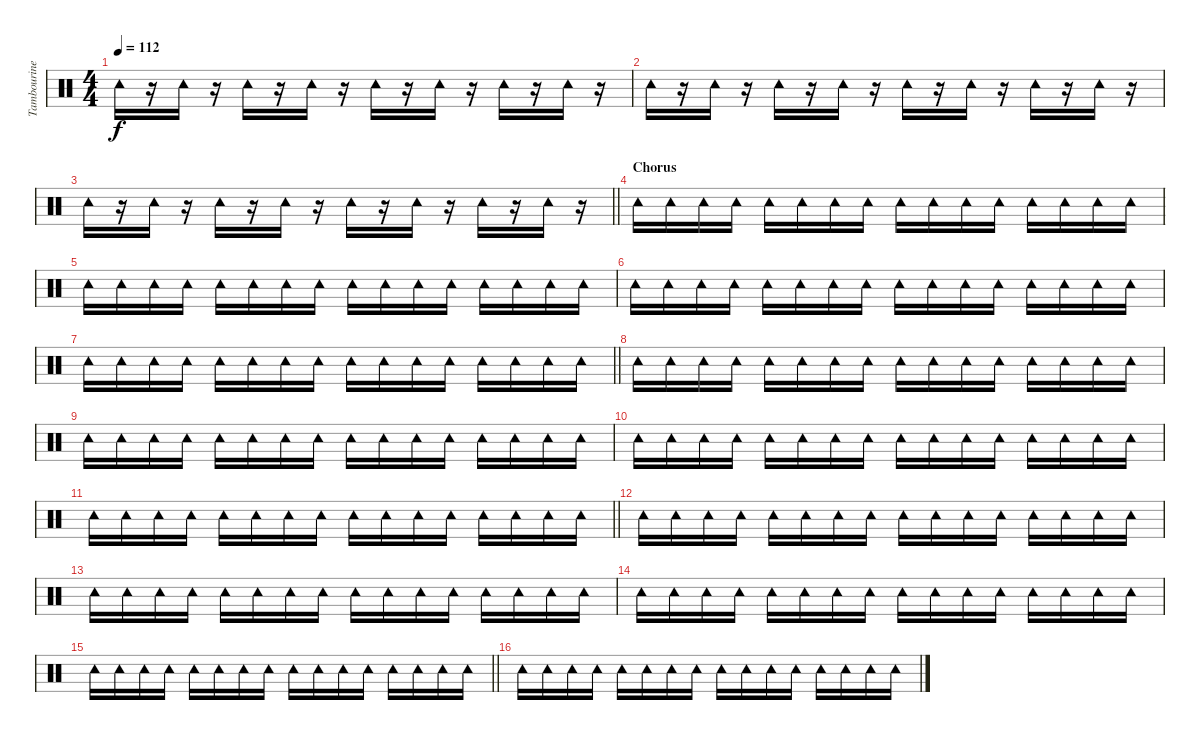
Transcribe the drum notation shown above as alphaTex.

\track ("Tambourine" "Tambourine") {instrument percussion}
\staff {score}
\articulation defaults
\ts (4 4)
\tempo 112
\clef neutral
\ks c "Tambourine (hit)".16{dy f}
r.16 "Tambourine (hit)".16 r.16 "Tambourine (hit)".16 r.16 "Tambourine (hit)".16 r.16 "Tambourine (hit)".16 r.16 "Tambourine (hit)".16 r.16 "Tambourine (hit)".16 r.16 "Tambourine (hit)".16 r.16 |
"Tambourine (hit)".16 r.16 "Tambourine (hit)".16 r.16 "Tambourine (hit)".16 r.16 "Tambourine (hit)".16 r.16 "Tambourine (hit)".16 r.16 "Tambourine (hit)".16 r.16 "Tambourine (hit)".16 r.16 "Tambourine (hit)".16 r.16 |
\barLineRight lightlight "Tambourine (hit)".16
r.16 "Tambourine (hit)".16 r.16 "Tambourine (hit)".16 r.16 "Tambourine (hit)".16 r.16 "Tambourine (hit)".16 r.16 "Tambourine (hit)".16 r.16 "Tambourine (hit)".16 r.16 "Tambourine (hit)".16 r.16 |
\section ("" "Chorus")
"Tambourine (hit)".16 "Tambourine (hit)".16 "Tambourine (hit)".16 "Tambourine (hit)".16 "Tambourine (hit)".16 "Tambourine (hit)".16 "Tambourine (hit)".16 "Tambourine (hit)".16 "Tambourine (hit)".16 "Tambourine (hit)".16 "Tambourine (hit)".16 "Tambourine (hit)".16 "Tambourine (hit)".16 "Tambourine (hit)".16 "Tambourine (hit)".16 "Tambourine (hit)".16 |
"Tambourine (hit)".16 "Tambourine (hit)".16 "Tambourine (hit)".16 "Tambourine (hit)".16 "Tambourine (hit)".16 "Tambourine (hit)".16 "Tambourine (hit)".16 "Tambourine (hit)".16 "Tambourine (hit)".16 "Tambourine (hit)".16 "Tambourine (hit)".16 "Tambourine (hit)".16 "Tambourine (hit)".16 "Tambourine (hit)".16 "Tambourine (hit)".16 "Tambourine (hit)".16 |
"Tambourine (hit)".16 "Tambourine (hit)".16 "Tambourine (hit)".16 "Tambourine (hit)".16 "Tambourine (hit)".16 "Tambourine (hit)".16 "Tambourine (hit)".16 "Tambourine (hit)".16 "Tambourine (hit)".16 "Tambourine (hit)".16 "Tambourine (hit)".16 "Tambourine (hit)".16 "Tambourine (hit)".16 "Tambourine (hit)".16 "Tambourine (hit)".16 "Tambourine (hit)".16 |
\barLineRight lightlight "Tambourine (hit)".16 "Tambourine (hit)".16 "Tambourine (hit)".16 "Tambourine (hit)".16 "Tambourine (hit)".16 "Tambourine (hit)".16 "Tambourine (hit)".16 "Tambourine (hit)".16 "Tambourine (hit)".16 "Tambourine (hit)".16 "Tambourine (hit)".16 "Tambourine (hit)".16 "Tambourine (hit)".16 "Tambourine (hit)".16 "Tambourine (hit)".16 "Tambourine (hit)".16
|
"Tambourine (hit)".16 "Tambourine (hit)".16 "Tambourine (hit)".16 "Tambourine (hit)".16 "Tambourine (hit)".16 "Tambourine (hit)".16 "Tambourine (hit)".16 "Tambourine (hit)".16 "Tambourine (hit)".16 "Tambourine (hit)".16 "Tambourine (hit)".16 "Tambourine (hit)".16 "Tambourine (hit)".16 "Tambourine (hit)".16 "Tambourine (hit)".16 "Tambourine (hit)".16 |
"Tambourine (hit)".16 "Tambourine (hit)".16 "Tambourine (hit)".16 "Tambourine (hit)".16 "Tambourine (hit)".16 "Tambourine (hit)".16 "Tambourine (hit)".16 "Tambourine (hit)".16 "Tambourine (hit)".16 "Tambourine (hit)".16 "Tambourine (hit)".16 "Tambourine (hit)".16 "Tambourine (hit)".16 "Tambourine (hit)".16 "Tambourine (hit)".16 "Tambourine (hit)".16 |
"Tambourine (hit)".16 "Tambourine (hit)".16 "Tambourine (hit)".16 "Tambourine (hit)".16 "Tambourine (hit)".16 "Tambourine (hit)".16 "Tambourine (hit)".16 "Tambourine (hit)".16 "Tambourine (hit)".16 "Tambourine (hit)".16 "Tambourine (hit)".16 "Tambourine (hit)".16 "Tambourine (hit)".16 "Tambourine (hit)".16 "Tambourine (hit)".16 "Tambourine (hit)".16 |
\barLineRight lightlight "Tambourine (hit)".16 "Tambourine (hit)".16 "Tambourine (hit)".16 "Tambourine (hit)".16 "Tambourine (hit)".16 "Tambourine (hit)".16 "Tambourine (hit)".16 "Tambourine (hit)".16 "Tambourine (hit)".16 "Tambourine (hit)".16 "Tambourine (hit)".16 "Tambourine (hit)".16 "Tambourine (hit)".16 "Tambourine (hit)".16 "Tambourine (hit)".16 "Tambourine (hit)".16
|
"Tambourine (hit)".16 "Tambourine (hit)".16 "Tambourine (hit)".16 "Tambourine (hit)".16 "Tambourine (hit)".16 "Tambourine (hit)".16 "Tambourine (hit)".16 "Tambourine (hit)".16 "Tambourine (hit)".16 "Tambourine (hit)".16 "Tambourine (hit)".16 "Tambourine (hit)".16 "Tambourine (hit)".16 "Tambourine (hit)".16 "Tambourine (hit)".16 "Tambourine (hit)".16 |
"Tambourine (hit)".16 "Tambourine (hit)".16 "Tambourine (hit)".16 "Tambourine (hit)".16 "Tambourine (hit)".16 "Tambourine (hit)".16 "Tambourine (hit)".16 "Tambourine (hit)".16 "Tambourine (hit)".16 "Tambourine (hit)".16 "Tambourine (hit)".16 "Tambourine (hit)".16 "Tambourine (hit)".16 "Tambourine (hit)".16 "Tambourine (hit)".16 "Tambourine (hit)".16 |
"Tambourine (hit)".16 "Tambourine (hit)".16 "Tambourine (hit)".16 "Tambourine (hit)".16 "Tambourine (hit)".16 "Tambourine (hit)".16 "Tambourine (hit)".16 "Tambourine (hit)".16 "Tambourine (hit)".16 "Tambourine (hit)".16 "Tambourine (hit)".16 "Tambourine (hit)".16 "Tambourine (hit)".16 "Tambourine (hit)".16 "Tambourine (hit)".16 "Tambourine (hit)".16 |
\barLineRight lightlight "Tambourine (hit)".16 "Tambourine (hit)".16 "Tambourine (hit)".16 "Tambourine (hit)".16 "Tambourine (hit)".16 "Tambourine (hit)".16 "Tambourine (hit)".16 "Tambourine (hit)".16 "Tambourine (hit)".16 "Tambourine (hit)".16 "Tambourine (hit)".16 "Tambourine (hit)".16 "Tambourine (hit)".16 "Tambourine (hit)".16 "Tambourine (hit)".16 "Tambourine (hit)".16
|
"Tambourine (hit)".16 "Tambourine (hit)".16 "Tambourine (hit)".16 "Tambourine (hit)".16 "Tambourine (hit)".16 "Tambourine (hit)".16 "Tambourine (hit)".16 "Tambourine (hit)".16 "Tambourine (hit)".16 "Tambourine (hit)".16 "Tambourine (hit)".16 "Tambourine (hit)".16 "Tambourine (hit)".16 "Tambourine (hit)".16 "Tambourine (hit)".16 "Tambourine (hit)".16
